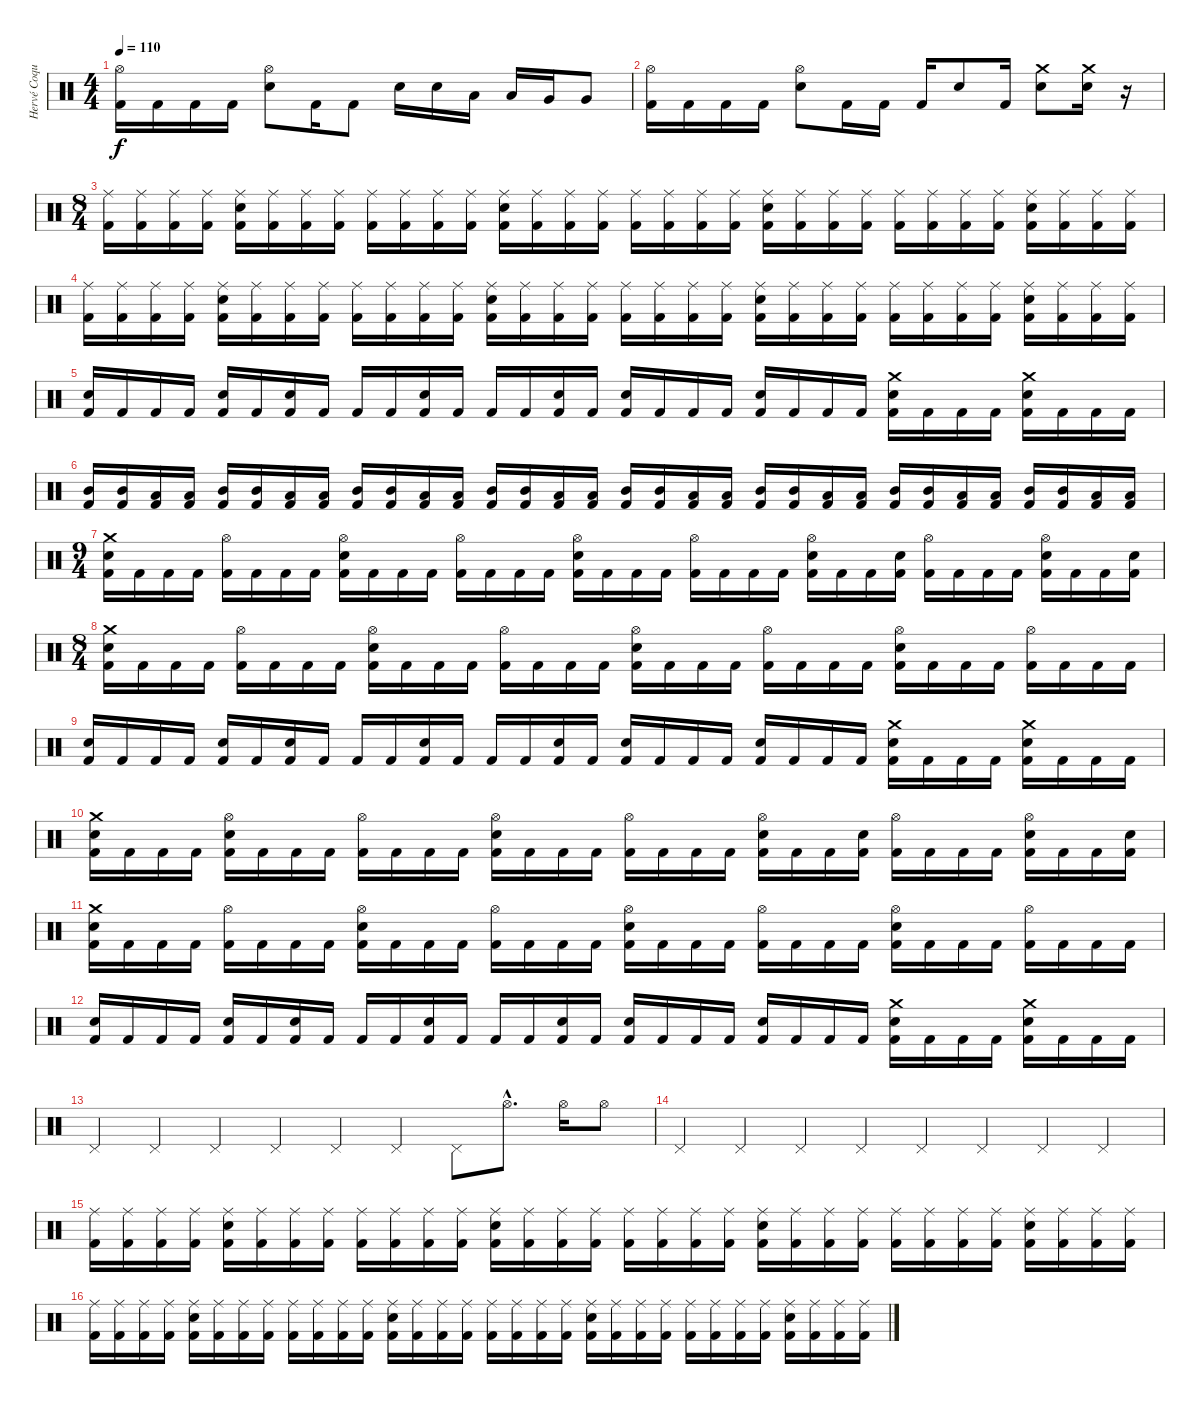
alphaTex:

\track ("Hervé Coquerel" "Hervé Coqu") {instrument percussion}
\staff {score}
\articulation defaults
\ts (4 4)
\tempo 110
\clef neutral
\ks c
("Hi-Hat (open)" "Kick (hit) 2").16{dy f} "Kick (hit) 2".16 "Kick (hit) 2".16 "Kick (hit) 2".16 ("Hi-Hat (open)" "Electric Snare (hit)").8 "Kick (hit) 2".16 "Kick (hit) 2".8 "Electric Snare (hit)".16 "Electric Snare (hit)".16 "Low Tom (hit)".16 "Low Tom (hit)".16 "Very Low Tom (hit)".16 "Very Low Tom (hit)".8 |
("Hi-Hat (open)" "Kick (hit) 2").16 "Kick (hit) 2".16 "Kick (hit) 2".16 "Kick (hit) 2".16 ("Hi-Hat (open)" "Electric Snare (hit)").8 "Kick (hit) 2".16 "Kick (hit) 2".16 "Kick (hit) 2".16 "Electric Snare (hit)".8 "Kick (hit) 2".16 ("Crash medium (hit)" "Electric Snare (hit)").8 ("Crash medium (hit)" "Electric Snare (hit)").16 r.16 |
\ts (8 4)
("Ride (middle)" "Kick (hit) 2").16 ("Ride (middle)" "Kick (hit) 2").16 ("Ride (middle)" "Kick (hit) 2").16 ("Ride (middle)" "Kick (hit) 2").16 ("Ride (middle)" "Electric Snare (hit)" "Kick (hit) 2").16 ("Ride (middle)" "Kick (hit) 2").16 ("Ride (middle)" "Kick (hit) 2").16 ("Ride (middle)" "Kick (hit) 2").16 ("Ride (middle)" "Kick (hit) 2").16 ("Ride (middle)" "Kick (hit) 2").16 ("Ride (middle)" "Kick (hit) 2").16 ("Ride (middle)" "Kick (hit) 2").16 ("Ride (middle)" "Electric Snare (hit)" "Kick (hit) 2").16 ("Ride (middle)" "Kick (hit) 2").16 ("Ride (middle)" "Kick (hit) 2").16 ("Ride (middle)" "Kick (hit) 2").16 ("Ride (middle)" "Kick (hit) 2").16 ("Ride (middle)" "Kick (hit) 2").16 ("Ride (middle)" "Kick (hit) 2").16 ("Ride (middle)" "Kick (hit) 2").16 ("Ride (middle)" "Electric Snare (hit)" "Kick (hit) 2").16 ("Ride (middle)" "Kick (hit) 2").16 ("Ride (middle)" "Kick (hit) 2").16 ("Ride (middle)" "Kick (hit) 2").16 ("Ride (middle)" "Kick (hit) 2").16 ("Ride (middle)" "Kick (hit) 2").16 ("Ride (middle)" "Kick (hit) 2").16 ("Ride (middle)" "Kick (hit) 2").16 ("Ride (middle)" "Electric Snare (hit)" "Kick (hit) 2").16 ("Ride (middle)" "Kick (hit) 2").16 ("Ride (middle)" "Kick (hit) 2").16 ("Ride (middle)" "Kick (hit) 2").16 |
("Ride (middle)" "Kick (hit) 2").16 ("Ride (middle)" "Kick (hit) 2").16 ("Ride (middle)" "Kick (hit) 2").16 ("Ride (middle)" "Kick (hit) 2").16 ("Ride (middle)" "Electric Snare (hit)" "Kick (hit) 2").16 ("Ride (middle)" "Kick (hit) 2").16 ("Ride (middle)" "Kick (hit) 2").16 ("Ride (middle)" "Kick (hit) 2").16 ("Ride (middle)" "Kick (hit) 2").16 ("Ride (middle)" "Kick (hit) 2").16 ("Ride (middle)" "Kick (hit) 2").16 ("Ride (middle)" "Kick (hit) 2").16 ("Ride (middle)" "Electric Snare (hit)" "Kick (hit) 2").16 ("Ride (middle)" "Kick (hit) 2").16 ("Ride (middle)" "Kick (hit) 2").16 ("Ride (middle)" "Kick (hit) 2").16 ("Ride (middle)" "Kick (hit) 2").16 ("Ride (middle)" "Kick (hit) 2").16 ("Ride (middle)" "Kick (hit) 2").16 ("Ride (middle)" "Kick (hit) 2").16 ("Ride (middle)" "Electric Snare (hit)" "Kick (hit) 2").16 ("Ride (middle)" "Kick (hit) 2").16 ("Ride (middle)" "Kick (hit) 2").16 ("Ride (middle)" "Kick (hit) 2").16 ("Ride (middle)" "Kick (hit) 2").16 ("Ride (middle)" "Kick (hit) 2").16 ("Ride (middle)" "Kick (hit) 2").16 ("Ride (middle)" "Kick (hit) 2").16 ("Ride (middle)" "Electric Snare (hit)" "Kick (hit) 2").16 ("Ride (middle)" "Kick (hit) 2").16 ("Ride (middle)" "Kick (hit) 2").16 ("Ride (middle)" "Kick (hit) 2").16 |
("Electric Snare (hit)" "Kick (hit) 2").16 "Kick (hit) 2".16 "Kick (hit) 2".16 "Kick (hit) 2".16 ("Electric Snare (hit)" "Kick (hit) 2").16 "Kick (hit) 2".16 ("Electric Snare (hit)" "Kick (hit) 2").16 "Kick (hit) 2".16 "Kick (hit) 2".16 "Kick (hit) 2".16 ("Electric Snare (hit)" "Kick (hit) 2").16 "Kick (hit) 2".16 "Kick (hit) 2".16 "Kick (hit) 2".16 ("Electric Snare (hit)" "Kick (hit) 2").16 "Kick (hit) 2".16 ("Electric Snare (hit)" "Kick (hit) 2").16 "Kick (hit) 2".16 "Kick (hit) 2".16 "Kick (hit) 2".16 ("Electric Snare (hit)" "Kick (hit) 2").16 "Kick (hit) 2".16 "Kick (hit) 2".16 "Kick (hit) 2".16 ("Crash medium (hit)" "Electric Snare (hit)" "Kick (hit) 2").16 "Kick (hit) 2".16 "Kick (hit) 2".16 "Kick (hit) 2".16 ("Crash medium (hit)" "Electric Snare (hit)" "Kick (hit) 2").16 "Kick (hit) 2".16 "Kick (hit) 2".16 "Kick (hit) 2".16 |
("Mid Tom (hit)" "Kick (hit) 2").16 ("Mid Tom (hit)" "Kick (hit) 2").16 ("Low Tom (hit)" "Kick (hit) 2").16 ("Low Tom (hit)" "Kick (hit) 2").16 ("Mid Tom (hit)" "Kick (hit) 2").16 ("Mid Tom (hit)" "Kick (hit) 2").16 ("Low Tom (hit)" "Kick (hit) 2").16 ("Low Tom (hit)" "Kick (hit) 2").16 ("Mid Tom (hit)" "Kick (hit) 2").16 ("Mid Tom (hit)" "Kick (hit) 2").16 ("Low Tom (hit)" "Kick (hit) 2").16 ("Low Tom (hit)" "Kick (hit) 2").16 ("Mid Tom (hit)" "Kick (hit) 2").16 ("Mid Tom (hit)" "Kick (hit) 2").16 ("Low Tom (hit)" "Kick (hit) 2").16 ("Low Tom (hit)" "Kick (hit) 2").16 ("Mid Tom (hit)" "Kick (hit) 2").16 ("Mid Tom (hit)" "Kick (hit) 2").16 ("Low Tom (hit)" "Kick (hit) 2").16 ("Low Tom (hit)" "Kick (hit) 2").16 ("Mid Tom (hit)" "Kick (hit) 2").16 ("Mid Tom (hit)" "Kick (hit) 2").16 ("Low Tom (hit)" "Kick (hit) 2").16 ("Low Tom (hit)" "Kick (hit) 2").16 ("Mid Tom (hit)" "Kick (hit) 2").16 ("Mid Tom (hit)" "Kick (hit) 2").16 ("Low Tom (hit)" "Kick (hit) 2").16 ("Low Tom (hit)" "Kick (hit) 2").16 ("Mid Tom (hit)" "Kick (hit) 2").16 ("Mid Tom (hit)" "Kick (hit) 2").16 ("Low Tom (hit)" "Kick (hit) 2").16 ("Low Tom (hit)" "Kick (hit) 2").16 |
\ts (9 4)
("Crash medium (hit)" "Electric Snare (hit)" "Kick (hit) 2").16 "Kick (hit) 2".16 "Kick (hit) 2".16 "Kick (hit) 2".16 ("Hi-Hat (open)" "Kick (hit) 2").16 "Kick (hit) 2".16 "Kick (hit) 2".16 "Kick (hit) 2".16 ("Hi-Hat (open)" "Electric Snare (hit)" "Kick (hit) 2").16 "Kick (hit) 2".16 "Kick (hit) 2".16 "Kick (hit) 2".16 ("Hi-Hat (open)" "Kick (hit) 2").16 "Kick (hit) 2".16 "Kick (hit) 2".16 "Kick (hit) 2".16 ("Hi-Hat (open)" "Electric Snare (hit)" "Kick (hit) 2").16 "Kick (hit) 2".16 "Kick (hit) 2".16 "Kick (hit) 2".16 ("Hi-Hat (open)" "Kick (hit) 2").16 "Kick (hit) 2".16 "Kick (hit) 2".16 "Kick (hit) 2".16 ("Hi-Hat (open)" "Electric Snare (hit)" "Kick (hit) 2").16 "Kick (hit) 2".16 "Kick (hit) 2".16 ("Electric Snare (hit)" "Kick (hit) 2").16 ("Hi-Hat (open)" "Kick (hit) 2").16 "Kick (hit) 2".16 "Kick (hit) 2".16 "Kick (hit) 2".16 ("Hi-Hat (open)" "Electric Snare (hit)" "Kick (hit) 2").16 "Kick (hit) 2".16 "Kick (hit) 2".16 ("Electric Snare (hit)" "Kick (hit) 2").16 |
\ts (8 4)
("Crash medium (hit)" "Electric Snare (hit)" "Kick (hit) 2").16 "Kick (hit) 2".16 "Kick (hit) 2".16 "Kick (hit) 2".16 ("Hi-Hat (open)" "Kick (hit) 2").16 "Kick (hit) 2".16 "Kick (hit) 2".16 "Kick (hit) 2".16 ("Hi-Hat (open)" "Electric Snare (hit)" "Kick (hit) 2").16 "Kick (hit) 2".16 "Kick (hit) 2".16 "Kick (hit) 2".16 ("Hi-Hat (open)" "Kick (hit) 2").16 "Kick (hit) 2".16 "Kick (hit) 2".16 "Kick (hit) 2".16 ("Hi-Hat (open)" "Electric Snare (hit)" "Kick (hit) 2").16 "Kick (hit) 2".16 "Kick (hit) 2".16 "Kick (hit) 2".16 ("Hi-Hat (open)" "Kick (hit) 2").16 "Kick (hit) 2".16 "Kick (hit) 2".16 "Kick (hit) 2".16 ("Hi-Hat (open)" "Electric Snare (hit)" "Kick (hit) 2").16 "Kick (hit) 2".16 "Kick (hit) 2".16 "Kick (hit) 2".16 ("Hi-Hat (open)" "Kick (hit) 2").16 "Kick (hit) 2".16 "Kick (hit) 2".16 "Kick (hit) 2".16 |
("Electric Snare (hit)" "Kick (hit) 2").16 "Kick (hit) 2".16 "Kick (hit) 2".16 "Kick (hit) 2".16 ("Electric Snare (hit)" "Kick (hit) 2").16 "Kick (hit) 2".16 ("Electric Snare (hit)" "Kick (hit) 2").16 "Kick (hit) 2".16 "Kick (hit) 2".16 "Kick (hit) 2".16 ("Electric Snare (hit)" "Kick (hit) 2").16 "Kick (hit) 2".16 "Kick (hit) 2".16 "Kick (hit) 2".16 ("Electric Snare (hit)" "Kick (hit) 2").16 "Kick (hit) 2".16 ("Electric Snare (hit)" "Kick (hit) 2").16 "Kick (hit) 2".16 "Kick (hit) 2".16 "Kick (hit) 2".16 ("Electric Snare (hit)" "Kick (hit) 2").16 "Kick (hit) 2".16 "Kick (hit) 2".16 "Kick (hit) 2".16 ("Crash medium (hit)" "Electric Snare (hit)" "Kick (hit) 2").16 "Kick (hit) 2".16 "Kick (hit) 2".16 "Kick (hit) 2".16 ("Crash medium (hit)" "Electric Snare (hit)" "Kick (hit) 2").16 "Kick (hit) 2".16 "Kick (hit) 2".16 "Kick (hit) 2".16 |
("Crash medium (hit)" "Electric Snare (hit)" "Kick (hit) 2").16 "Kick (hit) 2".16 "Kick (hit) 2".16 "Kick (hit) 2".16 ("Hi-Hat (open)" "Electric Snare (hit)" "Kick (hit) 2").16 "Kick (hit) 2".16 "Kick (hit) 2".16 "Kick (hit) 2".16 ("Hi-Hat (open)" "Kick (hit) 2").16 "Kick (hit) 2".16 "Kick (hit) 2".16 "Kick (hit) 2".16 ("Hi-Hat (open)" "Electric Snare (hit)" "Kick (hit) 2").16 "Kick (hit) 2".16 "Kick (hit) 2".16 "Kick (hit) 2".16 ("Hi-Hat (open)" "Kick (hit) 2").16 "Kick (hit) 2".16 "Kick (hit) 2".16 "Kick (hit) 2".16 ("Hi-Hat (open)" "Electric Snare (hit)" "Kick (hit) 2").16 "Kick (hit) 2".16 "Kick (hit) 2".16 ("Electric Snare (hit)" "Kick (hit) 2").16 ("Hi-Hat (open)" "Kick (hit) 2").16 "Kick (hit) 2".16 "Kick (hit) 2".16 "Kick (hit) 2".16 ("Hi-Hat (open)" "Electric Snare (hit)" "Kick (hit) 2").16 "Kick (hit) 2".16 "Kick (hit) 2".16 ("Electric Snare (hit)" "Kick (hit) 2").16 |
("Crash medium (hit)" "Electric Snare (hit)" "Kick (hit) 2").16 "Kick (hit) 2".16 "Kick (hit) 2".16 "Kick (hit) 2".16 ("Hi-Hat (open)" "Kick (hit) 2").16 "Kick (hit) 2".16 "Kick (hit) 2".16 "Kick (hit) 2".16 ("Hi-Hat (open)" "Electric Snare (hit)" "Kick (hit) 2").16 "Kick (hit) 2".16 "Kick (hit) 2".16 "Kick (hit) 2".16 ("Hi-Hat (open)" "Kick (hit) 2").16 "Kick (hit) 2".16 "Kick (hit) 2".16 "Kick (hit) 2".16 ("Hi-Hat (open)" "Electric Snare (hit)" "Kick (hit) 2").16 "Kick (hit) 2".16 "Kick (hit) 2".16 "Kick (hit) 2".16 ("Hi-Hat (open)" "Kick (hit) 2").16 "Kick (hit) 2".16 "Kick (hit) 2".16 "Kick (hit) 2".16 ("Hi-Hat (open)" "Electric Snare (hit)" "Kick (hit) 2").16 "Kick (hit) 2".16 "Kick (hit) 2".16 "Kick (hit) 2".16 ("Hi-Hat (open)" "Kick (hit) 2").16 "Kick (hit) 2".16 "Kick (hit) 2".16 "Kick (hit) 2".16 |
("Electric Snare (hit)" "Kick (hit) 2").16 "Kick (hit) 2".16 "Kick (hit) 2".16 "Kick (hit) 2".16 ("Electric Snare (hit)" "Kick (hit) 2").16 "Kick (hit) 2".16 ("Electric Snare (hit)" "Kick (hit) 2").16 "Kick (hit) 2".16 "Kick (hit) 2".16 "Kick (hit) 2".16 ("Electric Snare (hit)" "Kick (hit) 2").16 "Kick (hit) 2".16 "Kick (hit) 2".16 "Kick (hit) 2".16 ("Electric Snare (hit)" "Kick (hit) 2").16 "Kick (hit) 2".16 ("Electric Snare (hit)" "Kick (hit) 2").16 "Kick (hit) 2".16 "Kick (hit) 2".16 "Kick (hit) 2".16 ("Electric Snare (hit)" "Kick (hit) 2").16 "Kick (hit) 2".16 "Kick (hit) 2".16 "Kick (hit) 2".16 ("Crash medium (hit)" "Electric Snare (hit)" "Kick (hit) 2").16 "Kick (hit) 2".16 "Kick (hit) 2".16 "Kick (hit) 2".16 ("Crash medium (hit)" "Electric Snare (hit)" "Kick (hit) 2").16 "Kick (hit) 2".16 "Kick (hit) 2".16 "Kick (hit) 2".16 |
"Pedal Hi-Hat (hit)".4 "Pedal Hi-Hat (hit)".4 "Pedal Hi-Hat (hit)".4 "Pedal Hi-Hat (hit)".4 "Pedal Hi-Hat (hit)".4 "Pedal Hi-Hat (hit)".4 "Pedal Hi-Hat (hit)".8 "Hi-Hat (open)"{hac}.8{d} "Hi-Hat (open)".16 "Hi-Hat (open)".8 |
"Pedal Hi-Hat (hit)".4 "Pedal Hi-Hat (hit)".4 "Pedal Hi-Hat (hit)".4 "Pedal Hi-Hat (hit)".4 "Pedal Hi-Hat (hit)".4 "Pedal Hi-Hat (hit)".4 "Pedal Hi-Hat (hit)".4 "Pedal Hi-Hat (hit)".4 |
("Ride (middle)" "Kick (hit) 2").16 ("Ride (middle)" "Kick (hit) 2").16 ("Ride (middle)" "Kick (hit) 2").16 ("Ride (middle)" "Kick (hit) 2").16 ("Ride (middle)" "Electric Snare (hit)" "Kick (hit) 2").16 ("Ride (middle)" "Kick (hit) 2").16 ("Ride (middle)" "Kick (hit) 2").16 ("Ride (middle)" "Kick (hit) 2").16 ("Ride (middle)" "Kick (hit) 2").16 ("Ride (middle)" "Kick (hit) 2").16 ("Ride (middle)" "Kick (hit) 2").16 ("Ride (middle)" "Kick (hit) 2").16 ("Ride (middle)" "Electric Snare (hit)" "Kick (hit) 2").16 ("Ride (middle)" "Kick (hit) 2").16 ("Ride (middle)" "Kick (hit) 2").16 ("Ride (middle)" "Kick (hit) 2").16 ("Ride (middle)" "Kick (hit) 2").16 ("Ride (middle)" "Kick (hit) 2").16 ("Ride (middle)" "Kick (hit) 2").16 ("Ride (middle)" "Kick (hit) 2").16 ("Ride (middle)" "Electric Snare (hit)" "Kick (hit) 2").16 ("Ride (middle)" "Kick (hit) 2").16 ("Ride (middle)" "Kick (hit) 2").16 ("Ride (middle)" "Kick (hit) 2").16 ("Ride (middle)" "Kick (hit) 2").16 ("Ride (middle)" "Kick (hit) 2").16 ("Ride (middle)" "Kick (hit) 2").16 ("Ride (middle)" "Kick (hit) 2").16 ("Ride (middle)" "Electric Snare (hit)" "Kick (hit) 2").16 ("Ride (middle)" "Kick (hit) 2").16 ("Ride (middle)" "Kick (hit) 2").16 ("Ride (middle)" "Kick (hit) 2").16 |
("Ride (middle)" "Kick (hit) 2").16 ("Ride (middle)" "Kick (hit) 2").16 ("Ride (middle)" "Kick (hit) 2").16 ("Ride (middle)" "Kick (hit) 2").16 ("Ride (middle)" "Electric Snare (hit)" "Kick (hit) 2").16 ("Ride (middle)" "Kick (hit) 2").16 ("Ride (middle)" "Kick (hit) 2").16 ("Ride (middle)" "Kick (hit) 2").16 ("Ride (middle)" "Kick (hit) 2").16 ("Ride (middle)" "Kick (hit) 2").16 ("Ride (middle)" "Kick (hit) 2").16 ("Ride (middle)" "Kick (hit) 2").16 ("Ride (middle)" "Electric Snare (hit)" "Kick (hit) 2").16 ("Ride (middle)" "Kick (hit) 2").16 ("Ride (middle)" "Kick (hit) 2").16 ("Ride (middle)" "Kick (hit) 2").16 ("Ride (middle)" "Kick (hit) 2").16 ("Ride (middle)" "Kick (hit) 2").16 ("Ride (middle)" "Kick (hit) 2").16 ("Ride (middle)" "Kick (hit) 2").16 ("Ride (middle)" "Electric Snare (hit)" "Kick (hit) 2").16 ("Ride (middle)" "Kick (hit) 2").16 ("Ride (middle)" "Kick (hit) 2").16 ("Ride (middle)" "Kick (hit) 2").16 ("Ride (middle)" "Kick (hit) 2").16 ("Ride (middle)" "Kick (hit) 2").16 ("Ride (middle)" "Kick (hit) 2").16 ("Ride (middle)" "Kick (hit) 2").16 ("Ride (middle)" "Electric Snare (hit)" "Kick (hit) 2").16 ("Ride (middle)" "Kick (hit) 2").16 ("Ride (middle)" "Kick (hit) 2").16 ("Ride (middle)" "Kick (hit) 2").16
